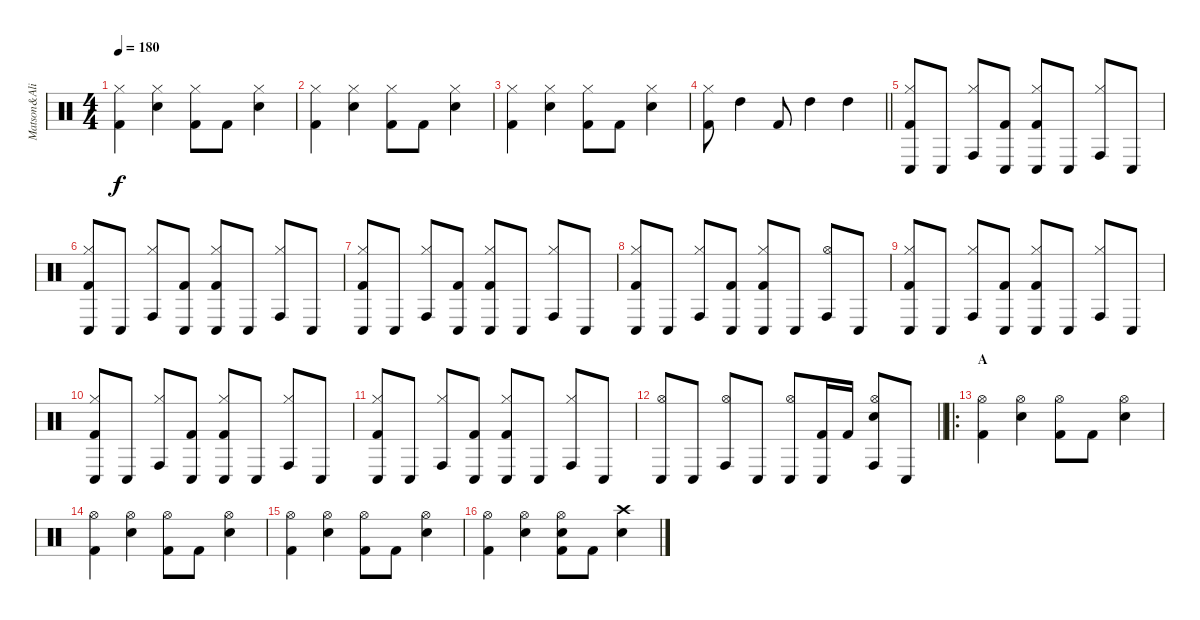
\track ("Matson&Ali" "Matson&Ali") {instrument percussion}
\staff {score}
\articulation defaults
\ts (4 4)
\tempo 180
\clef neutral
\ks c
("Hi-Hat (closed)" "Kick (hit) 2").4{dy f} ("Hi-Hat (closed)" "Snare (hit) 2").4 ("Hi-Hat (closed)" "Kick (hit) 2").8 "Kick (hit) 2".8 ("Hi-Hat (closed)" "Snare (hit) 2").4 |
("Hi-Hat (closed)" "Kick (hit) 2").4 ("Hi-Hat (closed)" "Snare (hit) 2").4 ("Hi-Hat (closed)" "Kick (hit) 2").8 "Kick (hit) 2".8 ("Hi-Hat (closed)" "Snare (hit) 2").4 |
("Hi-Hat (closed)" "Kick (hit) 2").4 ("Hi-Hat (closed)" "Snare (hit) 2").4 ("Hi-Hat (closed)" "Kick (hit) 2").8 "Kick (hit) 2".8 ("Hi-Hat (closed)" "Snare (hit) 2").4 |
\barLineRight lightlight
("Hi-Hat (closed)" "Kick (hit) 2").8 "High Tom (hit)".4 "Kick (hit) 2".8 "High Tom (hit)".4 "High Tom (hit)".4 |
("Hi-Hat (closed)" "Conga low (hit)" "Kick (hit) 2").8 "Conga low (hit)".8 ("Hi-Hat (closed)" "Conga high (hit)").8 ("Conga low (hit)" "Kick (hit) 2").8 ("Hi-Hat (closed)" "Conga low (hit)" "Kick (hit) 2").8 "Conga low (hit)".8 ("Hi-Hat (closed)" "Conga high (hit)").8 "Conga low (hit)".8 |
("Hi-Hat (closed)" "Conga low (hit)" "Kick (hit) 2").8 "Conga low (hit)".8 ("Hi-Hat (closed)" "Conga high (hit)").8 ("Conga low (hit)" "Kick (hit) 2").8 ("Hi-Hat (closed)" "Conga low (hit)" "Kick (hit) 2").8 "Conga low (hit)".8 ("Hi-Hat (closed)" "Conga high (hit)").8 "Conga low (hit)".8 |
("Hi-Hat (closed)" "Conga low (hit)" "Kick (hit) 2").8 "Conga low (hit)".8 ("Hi-Hat (closed)" "Conga high (hit)").8 ("Conga low (hit)" "Kick (hit) 2").8 ("Hi-Hat (closed)" "Conga low (hit)" "Kick (hit) 2").8 "Conga low (hit)".8 ("Hi-Hat (closed)" "Conga high (hit)").8 "Conga low (hit)".8 |
("Hi-Hat (closed)" "Conga low (hit)" "Kick (hit) 2").8 "Conga low (hit)".8 ("Hi-Hat (closed)" "Conga high (hit)").8 ("Conga low (hit)" "Kick (hit) 2").8 ("Hi-Hat (closed)" "Conga low (hit)" "Kick (hit) 2").8 "Conga low (hit)".8 ("Hi-Hat (open)" "Conga high (hit)").8 "Conga low (hit)".8 |
("Hi-Hat (closed)" "Conga low (hit)" "Kick (hit) 2").8 "Conga low (hit)".8 ("Hi-Hat (closed)" "Conga high (hit)").8 ("Conga low (hit)" "Kick (hit) 2").8 ("Hi-Hat (closed)" "Conga low (hit)" "Kick (hit) 2").8 "Conga low (hit)".8 ("Hi-Hat (closed)" "Conga high (hit)").8 "Conga low (hit)".8 |
("Hi-Hat (closed)" "Conga low (hit)" "Kick (hit) 2").8 "Conga low (hit)".8 ("Hi-Hat (closed)" "Conga high (hit)").8 ("Conga low (hit)" "Kick (hit) 2").8 ("Hi-Hat (closed)" "Conga low (hit)" "Kick (hit) 2").8 "Conga low (hit)".8 ("Hi-Hat (closed)" "Conga high (hit)").8 "Conga low (hit)".8 |
("Hi-Hat (closed)" "Conga low (hit)" "Kick (hit) 2").8 "Conga low (hit)".8 ("Hi-Hat (closed)" "Conga high (hit)").8 ("Conga low (hit)" "Kick (hit) 2").8 ("Hi-Hat (closed)" "Conga low (hit)" "Kick (hit) 2").8 "Conga low (hit)".8 ("Hi-Hat (closed)" "Conga high (hit)").8 "Conga low (hit)".8 |
\barLineRight lightlight
("Hi-Hat (open)" "Conga low (hit)").8 "Conga low (hit)".8 ("Hi-Hat (open)" "Conga high (hit)").8 "Conga low (hit)".8 ("Hi-Hat (open)" "Conga low (hit)").8 ("Conga low (hit)" "Kick (hit) 2").16 "Kick (hit) 2".16 ("Hi-Hat (open)" "Conga high (hit)" "Snare (hit) 2").8 "Conga low (hit)".8 |
\ro
\section ("" "A")
("Hi-Hat (open)" "Kick (hit) 2").4 ("Hi-Hat (open)" "Snare (hit) 2").4 ("Hi-Hat (open)" "Kick (hit) 2").8 "Kick (hit) 2".8 ("Hi-Hat (open)" "Snare (hit) 2").4 |
("Hi-Hat (open)" "Kick (hit) 2").4 ("Hi-Hat (open)" "Snare (hit) 2").4 ("Hi-Hat (open)" "Kick (hit) 2").8 "Kick (hit) 2".8 ("Hi-Hat (open)" "Snare (hit) 2").4 |
("Hi-Hat (open)" "Kick (hit) 2").4 ("Hi-Hat (open)" "Snare (hit) 2").4 ("Hi-Hat (open)" "Kick (hit) 2").8 "Kick (hit) 2".8 ("Hi-Hat (open)" "Snare (hit) 2").4 |
("Hi-Hat (open)" "Kick (hit) 2").4 ("Hi-Hat (open)" "Snare (hit) 2").4 ("Hi-Hat (open)" "Snare (hit) 2" "Kick (hit) 2").8 "Kick (hit) 2".8 ("Crash high (hit)" "Snare (hit) 2").4
